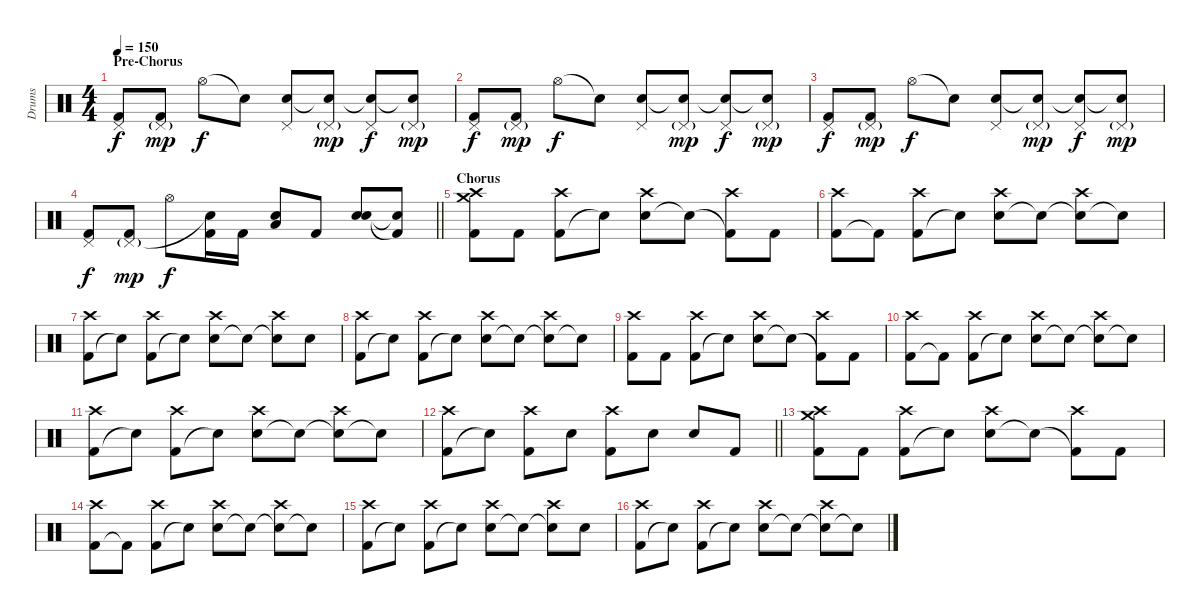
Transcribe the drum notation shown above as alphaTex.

\track ("Drums" "Drums") {instrument percussion}
\staff {score}
\articulation defaults
\ts (4 4)
\section ("" "Pre-Chorus")
\tempo 150
\clef neutral
\ks c
("Kick (hit) 2" "Pedal Hi-Hat (hit)").8{dy f} ("Kick (hit) 2" "Pedal Hi-Hat (hit)"{g}).8{dy mp} "Hi-Hat (open)".8{dy f} "Snare (hit)"{t}.8 ("Electric Snare (hit)" "Pedal Hi-Hat (hit)").8 ("Snare (hit)"{t} "Pedal Hi-Hat (hit)"{g}).8{dy mp} ("Snare (hit)"{t} "Pedal Hi-Hat (hit)").8{dy f} ("Snare (hit)"{t} "Pedal Hi-Hat (hit)"{g}).8{dy mp} |
("Kick (hit) 2" "Pedal Hi-Hat (hit)").8{dy f} ("Kick (hit) 2" "Pedal Hi-Hat (hit)"{g}).8{dy mp} "Hi-Hat (open)".8{dy f} "Snare (hit)"{t}.8 ("Electric Snare (hit)" "Pedal Hi-Hat (hit)").8 ("Snare (hit)"{t} "Pedal Hi-Hat (hit)"{g}).8{dy mp} ("Snare (hit)"{t} "Pedal Hi-Hat (hit)").8{dy f} ("Snare (hit)"{t} "Pedal Hi-Hat (hit)"{g}).8{dy mp} |
("Kick (hit) 2" "Pedal Hi-Hat (hit)").8{dy f} ("Kick (hit) 2" "Pedal Hi-Hat (hit)"{g}).8{dy mp} "Hi-Hat (open)".8{dy f} "Snare (hit)"{t}.8 ("Electric Snare (hit)" "Pedal Hi-Hat (hit)").8 ("Snare (hit)"{t} "Pedal Hi-Hat (hit)"{g}).8{dy mp} ("Snare (hit)"{t} "Pedal Hi-Hat (hit)").8{dy f} ("Snare (hit)"{t} "Pedal Hi-Hat (hit)"{g}).8{dy mp} |
\barLineRight lightlight
("Kick (hit) 2" "Pedal Hi-Hat (hit)").8{dy f} ("Kick (hit) 2" "Pedal Hi-Hat (hit)"{g}).8{dy mp} "Hi-Hat (open)".8{dy f} ("Kick (hit) 2" "Snare (hit)"{t}).16 "Kick (hit) 2".16 ("Electric Snare (hit)" "Low Floor Tom (hit)").8 "Kick (hit) 2".8 ("Electric Snare (hit)" "Electric Snare (hit)").8 ("Kick (hit) 2"{t} "Snare (hit)"{t}).8 |
\section ("" "Chorus")
("Kick (hit) 2" "Crash medium (hit)" "Crash high (hit)").8 "Kick (hit) 2".8 ("Kick (hit) 2" "Crash high (hit)").8 "Snare (hit)"{t}.8 ("Electric Snare (hit)" "Crash high (hit)").8 "Snare (hit)"{t}.8 ("Kick (hit) 2"{t} "Crash high (hit)").8 "Kick (hit) 2".8 |
("Kick (hit) 2" "Crash high (hit)").8 "Kick (hit) 2"{t}.8 ("Kick (hit) 2" "Crash high (hit)").8 "Electric Snare (hit)"{t}.8 ("Electric Snare (hit)" "Crash high (hit)").8 "Snare (hit)"{t}.8 ("Snare (hit)"{t} "Crash high (hit)").8 "Snare (hit)"{t}.8 |
("Kick (hit) 2" "Crash high (hit)").8 "Snare (hit)"{t}.8 ("Kick (hit) 2" "Crash high (hit)").8 "Snare (hit)"{t}.8 ("Electric Snare (hit)" "Crash high (hit)").8 "Snare (hit)"{t}.8 ("Snare (hit)"{t} "Crash high (hit)").8 "Electric Snare (hit)".8 |
("Kick (hit) 2" "Crash high (hit)").8 "Snare (hit)"{t}.8 ("Kick (hit) 2" "Crash high (hit)").8 "Snare (hit)"{t}.8 ("Electric Snare (hit)" "Crash high (hit)").8 "Snare (hit)"{t}.8 ("Snare (hit)"{t} "Crash high (hit)").8 "Snare (hit)"{t}.8 |
("Kick (hit) 2" "Crash high (hit)").8 "Kick (hit) 2".8 ("Kick (hit) 2" "Crash high (hit)").8 "Snare (hit)"{t}.8 ("Electric Snare (hit)" "Crash high (hit)").8 "Snare (hit)"{t}.8 ("Kick (hit) 2"{t} "Crash high (hit)").8 "Kick (hit) 2".8 |
("Kick (hit) 2" "Crash high (hit)").8 "Kick (hit) 2"{t}.8 ("Kick (hit) 2" "Crash high (hit)").8 "Electric Snare (hit)"{t}.8 ("Electric Snare (hit)" "Crash high (hit)").8 "Snare (hit)"{t}.8 ("Snare (hit)"{t} "Crash high (hit)").8 "Snare (hit)"{t}.8 |
("Kick (hit) 2" "Crash high (hit)").8 "Snare (hit)"{t}.8 ("Kick (hit) 2" "Crash high (hit)").8 "Snare (hit)"{t}.8 ("Electric Snare (hit)" "Crash high (hit)").8 "Snare (hit)"{t}.8 ("Snare (hit)"{t} "Crash high (hit)").8 "Electric Snare (hit)"{t}.8 |
\barLineRight lightlight
("Kick (hit) 2" "Crash high (hit)").8 "Snare (hit)"{t}.8 ("Kick (hit) 2" "Crash high (hit)").8 "Electric Snare (hit)".8 ("Kick (hit) 2" "Crash high (hit)").8 "Electric Snare (hit)".8 "Electric Snare (hit)".8 "Kick (hit) 2".8 |
("Kick (hit) 2" "Crash medium (hit)" "Crash high (hit)").8 "Kick (hit) 2".8 ("Kick (hit) 2" "Crash high (hit)").8 "Snare (hit)"{t}.8 ("Electric Snare (hit)" "Crash high (hit)").8 "Snare (hit)"{t}.8 ("Kick (hit) 2"{t} "Crash high (hit)").8 "Kick (hit) 2".8 |
("Kick (hit) 2" "Crash high (hit)").8 "Kick (hit) 2"{t}.8 ("Kick (hit) 2" "Crash high (hit)").8 "Electric Snare (hit)"{t}.8 ("Electric Snare (hit)" "Crash high (hit)").8 "Snare (hit)"{t}.8 ("Snare (hit)"{t} "Crash high (hit)").8 "Snare (hit)"{t}.8 |
("Kick (hit) 2" "Crash high (hit)").8 "Snare (hit)"{t}.8 ("Kick (hit) 2" "Crash high (hit)").8 "Snare (hit)"{t}.8 ("Electric Snare (hit)" "Crash high (hit)").8 "Snare (hit)"{t}.8 ("Snare (hit)"{t} "Crash high (hit)").8 "Electric Snare (hit)".8 |
("Kick (hit) 2" "Crash high (hit)").8 "Snare (hit)"{t}.8 ("Kick (hit) 2" "Crash high (hit)").8 "Snare (hit)"{t}.8 ("Electric Snare (hit)" "Crash high (hit)").8 "Snare (hit)"{t}.8 ("Snare (hit)"{t} "Crash high (hit)").8 "Snare (hit)"{t}.8
